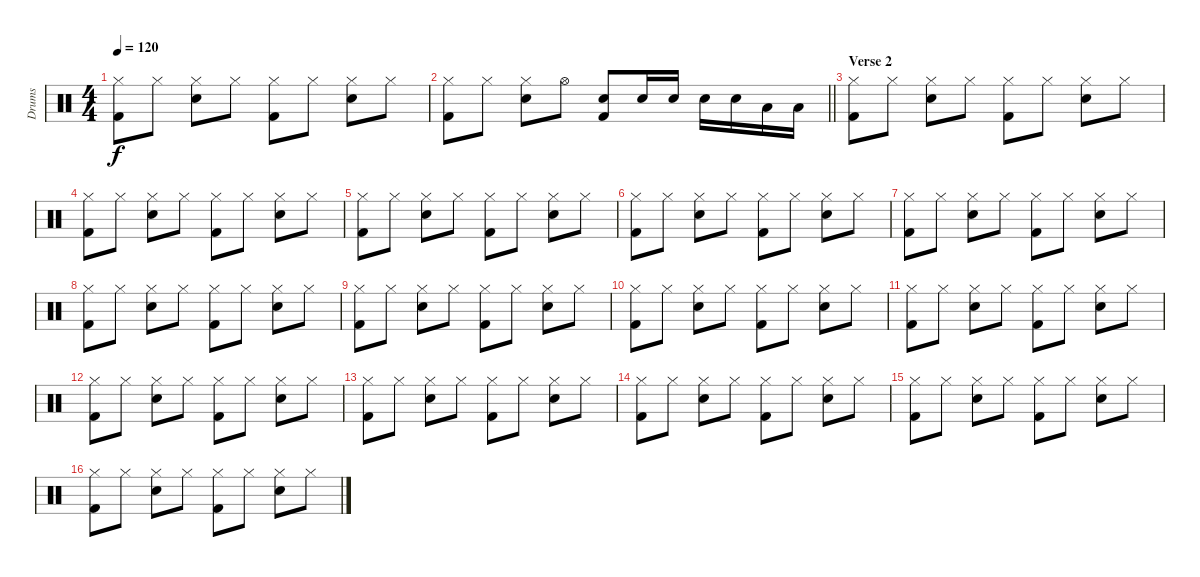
\track ("Drums" "Drums") {instrument percussion}
\staff {score}
\articulation defaults
\ts (4 4)
\tempo 120
\clef neutral
\ks c
("Hi-Hat (closed)" "Kick (hit) 2").8{dy f} "Hi-Hat (closed)".8 ("Hi-Hat (closed)" "Snare (hit) 2").8 "Hi-Hat (closed)".8 ("Hi-Hat (closed)" "Kick (hit) 2").8 "Hi-Hat (closed)".8 ("Hi-Hat (closed)" "Snare (hit) 2").8 "Hi-Hat (closed)".8 |
\barLineRight lightlight
("Hi-Hat (closed)" "Kick (hit) 2").8 "Hi-Hat (closed)".8 ("Hi-Hat (closed)" "Snare (hit) 2").8 "Hi-Hat (open)".8 ("Snare (hit) 2" "Kick (hit) 2").8 "Snare (hit) 2".16 "Snare (hit) 2".16 "Snare (hit) 2".16 "Snare (hit) 2".16 "Low Tom (hit)".16 "Low Tom (hit)".16 |
\section ("" "Verse 2")
("Hi-Hat (closed)" "Kick (hit) 2").8 "Hi-Hat (closed)".8 ("Hi-Hat (closed)" "Snare (hit) 2").8 "Hi-Hat (closed)".8 ("Hi-Hat (closed)" "Kick (hit) 2").8 "Hi-Hat (closed)".8 ("Hi-Hat (closed)" "Snare (hit) 2").8 "Hi-Hat (closed)".8 |
("Hi-Hat (closed)" "Kick (hit) 2").8 "Hi-Hat (closed)".8 ("Hi-Hat (closed)" "Snare (hit) 2").8 "Hi-Hat (closed)".8 ("Hi-Hat (closed)" "Kick (hit) 2").8 "Hi-Hat (closed)".8 ("Hi-Hat (closed)" "Snare (hit) 2").8 "Hi-Hat (closed)".8 |
("Hi-Hat (closed)" "Kick (hit) 2").8 "Hi-Hat (closed)".8 ("Hi-Hat (closed)" "Snare (hit) 2").8 "Hi-Hat (closed)".8 ("Hi-Hat (closed)" "Kick (hit) 2").8 "Hi-Hat (closed)".8 ("Hi-Hat (closed)" "Snare (hit) 2").8 "Hi-Hat (closed)".8 |
("Hi-Hat (closed)" "Kick (hit) 2").8 "Hi-Hat (closed)".8 ("Hi-Hat (closed)" "Snare (hit) 2").8 "Hi-Hat (closed)".8 ("Hi-Hat (closed)" "Kick (hit) 2").8 "Hi-Hat (closed)".8 ("Hi-Hat (closed)" "Snare (hit) 2").8 "Hi-Hat (closed)".8 |
("Hi-Hat (closed)" "Kick (hit) 2").8 "Hi-Hat (closed)".8 ("Hi-Hat (closed)" "Snare (hit) 2").8 "Hi-Hat (closed)".8 ("Hi-Hat (closed)" "Kick (hit) 2").8 "Hi-Hat (closed)".8 ("Hi-Hat (closed)" "Snare (hit) 2").8 "Hi-Hat (closed)".8 |
("Hi-Hat (closed)" "Kick (hit) 2").8 "Hi-Hat (closed)".8 ("Hi-Hat (closed)" "Snare (hit) 2").8 "Hi-Hat (closed)".8 ("Hi-Hat (closed)" "Kick (hit) 2").8 "Hi-Hat (closed)".8 ("Hi-Hat (closed)" "Snare (hit) 2").8 "Hi-Hat (closed)".8 |
("Hi-Hat (closed)" "Kick (hit) 2").8 "Hi-Hat (closed)".8 ("Hi-Hat (closed)" "Snare (hit) 2").8 "Hi-Hat (closed)".8 ("Hi-Hat (closed)" "Kick (hit) 2").8 "Hi-Hat (closed)".8 ("Hi-Hat (closed)" "Snare (hit) 2").8 "Hi-Hat (closed)".8 |
("Hi-Hat (closed)" "Kick (hit) 2").8 "Hi-Hat (closed)".8 ("Hi-Hat (closed)" "Snare (hit) 2").8 "Hi-Hat (closed)".8 ("Hi-Hat (closed)" "Kick (hit) 2").8 "Hi-Hat (closed)".8 ("Hi-Hat (closed)" "Snare (hit) 2").8 "Hi-Hat (closed)".8 |
("Hi-Hat (closed)" "Kick (hit) 2").8 "Hi-Hat (closed)".8 ("Hi-Hat (closed)" "Snare (hit) 2").8 "Hi-Hat (closed)".8 ("Hi-Hat (closed)" "Kick (hit) 2").8 "Hi-Hat (closed)".8 ("Hi-Hat (closed)" "Snare (hit) 2").8 "Hi-Hat (closed)".8 |
("Hi-Hat (closed)" "Kick (hit) 2").8 "Hi-Hat (closed)".8 ("Hi-Hat (closed)" "Snare (hit) 2").8 "Hi-Hat (closed)".8 ("Hi-Hat (closed)" "Kick (hit) 2").8 "Hi-Hat (closed)".8 ("Hi-Hat (closed)" "Snare (hit) 2").8 "Hi-Hat (closed)".8 |
("Hi-Hat (closed)" "Kick (hit) 2").8 "Hi-Hat (closed)".8 ("Hi-Hat (closed)" "Snare (hit) 2").8 "Hi-Hat (closed)".8 ("Hi-Hat (closed)" "Kick (hit) 2").8 "Hi-Hat (closed)".8 ("Hi-Hat (closed)" "Snare (hit) 2").8 "Hi-Hat (closed)".8 |
("Hi-Hat (closed)" "Kick (hit) 2").8 "Hi-Hat (closed)".8 ("Hi-Hat (closed)" "Snare (hit) 2").8 "Hi-Hat (closed)".8 ("Hi-Hat (closed)" "Kick (hit) 2").8 "Hi-Hat (closed)".8 ("Hi-Hat (closed)" "Snare (hit) 2").8 "Hi-Hat (closed)".8 |
("Hi-Hat (closed)" "Kick (hit) 2").8 "Hi-Hat (closed)".8 ("Hi-Hat (closed)" "Snare (hit) 2").8 "Hi-Hat (closed)".8 ("Hi-Hat (closed)" "Kick (hit) 2").8 "Hi-Hat (closed)".8 ("Hi-Hat (closed)" "Snare (hit) 2").8 "Hi-Hat (closed)".8 |
("Hi-Hat (closed)" "Kick (hit) 2").8 "Hi-Hat (closed)".8 ("Hi-Hat (closed)" "Snare (hit) 2").8 "Hi-Hat (closed)".8 ("Hi-Hat (closed)" "Kick (hit) 2").8 "Hi-Hat (closed)".8 ("Hi-Hat (closed)" "Snare (hit) 2").8 "Hi-Hat (closed)".8
